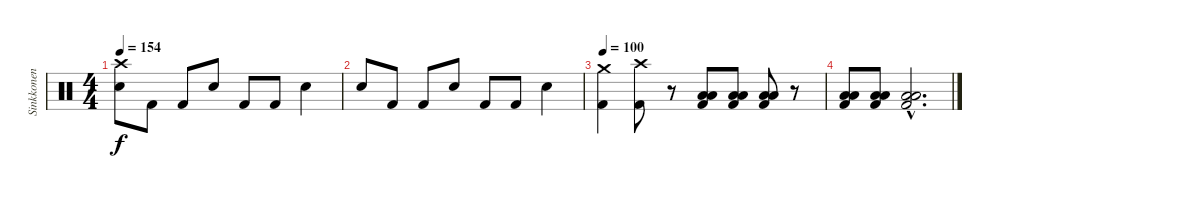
\track ("Sinkkonen" "Sinkkonen") {instrument percussion}
\staff {score}
\articulation defaults
\ts (4 4)
\tempo 154
\clef neutral
\ks c
("Crash high (hit)" "Snare (hit) 2").8{dy f} "Kick (hit) 2".8 "Kick (hit) 2".8 "Snare (hit) 2".8 "Kick (hit) 2".8 "Kick (hit) 2".8 "Snare (hit) 2".4 |
"Snare (hit) 2".8 "Kick (hit) 2".8 "Kick (hit) 2".8 "Snare (hit) 2".8 "Kick (hit) 2".8 "Kick (hit) 2".8 "Snare (hit) 2".4 |
\tempo 100
("Kick (hit) 2" "Crash medium (hit)").4 ("Kick (hit) 2" "Crash high (hit)").8 r.8 ("Kick (hit) 2" "Low Floor Tom (hit)" "Low Floor Tom (hit)").8 ("Kick (hit) 2" "Low Floor Tom (hit)" "Low Floor Tom (hit)").8 ("Kick (hit) 2" "Low Floor Tom (hit)" "Low Floor Tom (hit)").8 r.8 |
("Kick (hit) 2" "Low Floor Tom (hit)" "Low Floor Tom (hit)").8 ("Kick (hit) 2" "Low Floor Tom (hit)" "Low Floor Tom (hit)").8 ("Kick (hit) 2"{hac} "Low Floor Tom (hit)"{hac} "Low Floor Tom (hit)"{hac}).2{d}
